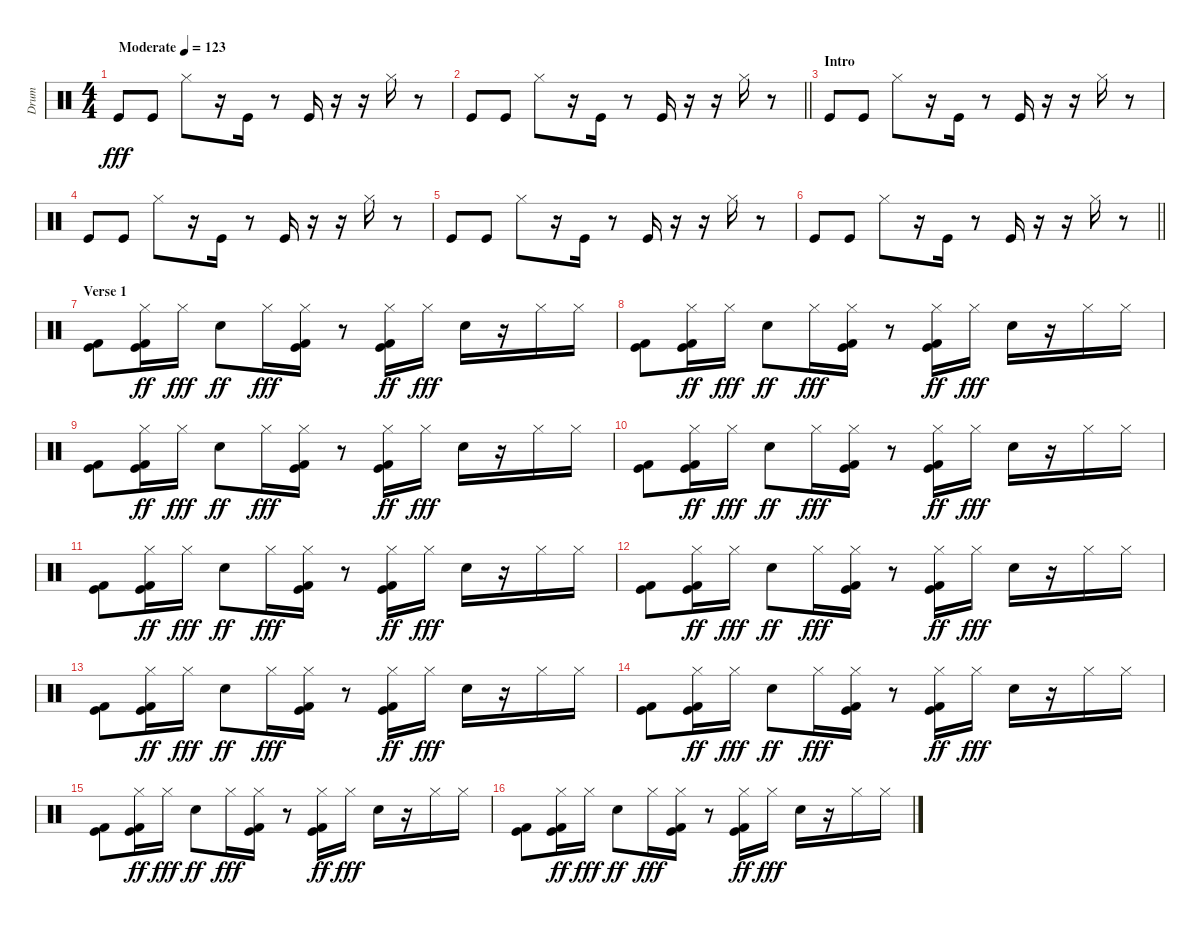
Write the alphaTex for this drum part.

\track ("Drum" "Drum") {instrument percussion}
\staff {score}
\articulation defaults
\ts (4 4)
\tempo (123 "Moderate")
\clef neutral
\ks c "Kick (hit)".8{dy fff} "Kick (hit)".8 "Hi-Hat (closed)".8
r.16 "Kick (hit)".16 r.8 "Kick (hit)".16 r.16 r.16 "Hi-Hat (closed)".16 r.8 |
\barLineRight lightlight "Kick (hit)".8 "Kick (hit)".8 "Hi-Hat (closed)".8
r.16 "Kick (hit)".16 r.8 "Kick (hit)".16 r.16 r.16 "Hi-Hat (closed)".16 r.8 |
\section ("" "Intro")
"Kick (hit)".8 "Kick (hit)".8 "Hi-Hat (closed)".8 r.16 "Kick (hit)".16 r.8 "Kick (hit)".16 r.16 r.16 "Hi-Hat (closed)".16 r.8 |
"Kick (hit)".8 "Kick (hit)".8 "Hi-Hat (closed)".8 r.16 "Kick (hit)".16 r.8 "Kick (hit)".16 r.16 r.16 "Hi-Hat (closed)".16 r.8 |
"Kick (hit)".8 "Kick (hit)".8 "Hi-Hat (closed)".8 r.16 "Kick (hit)".16 r.8 "Kick (hit)".16 r.16 r.16 "Hi-Hat (closed)".16 r.8 |
\barLineRight lightlight "Kick (hit)".8 "Kick (hit)".8 "Hi-Hat (closed)".8
r.16 "Kick (hit)".16 r.8 "Kick (hit)".16 r.16 r.16 "Hi-Hat (closed)".16 r.8 |
\section ("" "Verse 1")
("Kick (hit)" "Kick (hit) 2").8 ("Hi-Hat (closed)" "Kick (hit)" "Kick (hit) 2").16{dy ff} "Hi-Hat (closed)".16{dy fff} "Electric Snare (hit)".8{dy ff} "Hi-Hat (closed)".16{dy fff} ("Hi-Hat (closed)" "Kick (hit)" "Kick (hit) 2").16 r.8 ("Hi-Hat (closed)" "Kick (hit)" "Kick (hit) 2").16{dy ff} "Hi-Hat (closed)".16{dy fff} "Electric Snare (hit)".16 r.16 "Hi-Hat (closed)".16 "Hi-Hat (closed)".16 |
("Kick (hit)" "Kick (hit) 2").8 ("Hi-Hat (closed)" "Kick (hit)" "Kick (hit) 2").16{dy ff} "Hi-Hat (closed)".16{dy fff} "Electric Snare (hit)".8{dy ff} "Hi-Hat (closed)".16{dy fff} ("Hi-Hat (closed)" "Kick (hit)" "Kick (hit) 2").16 r.8 ("Hi-Hat (closed)" "Kick (hit)" "Kick (hit) 2").16{dy ff} "Hi-Hat (closed)".16{dy fff} "Electric Snare (hit)".16 r.16 "Hi-Hat (closed)".16 "Hi-Hat (closed)".16 |
("Kick (hit)" "Kick (hit) 2").8 ("Hi-Hat (closed)" "Kick (hit)" "Kick (hit) 2").16{dy ff} "Hi-Hat (closed)".16{dy fff} "Electric Snare (hit)".8{dy ff} "Hi-Hat (closed)".16{dy fff} ("Hi-Hat (closed)" "Kick (hit)" "Kick (hit) 2").16 r.8 ("Hi-Hat (closed)" "Kick (hit)" "Kick (hit) 2").16{dy ff} "Hi-Hat (closed)".16{dy fff} "Electric Snare (hit)".16 r.16 "Hi-Hat (closed)".16 "Hi-Hat (closed)".16 |
("Kick (hit)" "Kick (hit) 2").8 ("Hi-Hat (closed)" "Kick (hit)" "Kick (hit) 2").16{dy ff} "Hi-Hat (closed)".16{dy fff} "Electric Snare (hit)".8{dy ff} "Hi-Hat (closed)".16{dy fff} ("Hi-Hat (closed)" "Kick (hit)" "Kick (hit) 2").16 r.8 ("Hi-Hat (closed)" "Kick (hit)" "Kick (hit) 2").16{dy ff} "Hi-Hat (closed)".16{dy fff} "Electric Snare (hit)".16 r.16 "Hi-Hat (closed)".16 "Hi-Hat (closed)".16 |
("Kick (hit)" "Kick (hit) 2").8 ("Hi-Hat (closed)" "Kick (hit)" "Kick (hit) 2").16{dy ff} "Hi-Hat (closed)".16{dy fff} "Electric Snare (hit)".8{dy ff} "Hi-Hat (closed)".16{dy fff} ("Hi-Hat (closed)" "Kick (hit)" "Kick (hit) 2").16 r.8 ("Hi-Hat (closed)" "Kick (hit)" "Kick (hit) 2").16{dy ff} "Hi-Hat (closed)".16{dy fff} "Electric Snare (hit)".16 r.16 "Hi-Hat (closed)".16 "Hi-Hat (closed)".16 |
("Kick (hit)" "Kick (hit) 2").8 ("Hi-Hat (closed)" "Kick (hit)" "Kick (hit) 2").16{dy ff} "Hi-Hat (closed)".16{dy fff} "Electric Snare (hit)".8{dy ff} "Hi-Hat (closed)".16{dy fff} ("Hi-Hat (closed)" "Kick (hit)" "Kick (hit) 2").16 r.8 ("Hi-Hat (closed)" "Kick (hit)" "Kick (hit) 2").16{dy ff} "Hi-Hat (closed)".16{dy fff} "Electric Snare (hit)".16 r.16 "Hi-Hat (closed)".16 "Hi-Hat (closed)".16 |
("Kick (hit)" "Kick (hit) 2").8 ("Hi-Hat (closed)" "Kick (hit)" "Kick (hit) 2").16{dy ff} "Hi-Hat (closed)".16{dy fff} "Electric Snare (hit)".8{dy ff} "Hi-Hat (closed)".16{dy fff} ("Hi-Hat (closed)" "Kick (hit)" "Kick (hit) 2").16 r.8 ("Hi-Hat (closed)" "Kick (hit)" "Kick (hit) 2").16{dy ff} "Hi-Hat (closed)".16{dy fff} "Electric Snare (hit)".16 r.16 "Hi-Hat (closed)".16 "Hi-Hat (closed)".16 |
("Kick (hit)" "Kick (hit) 2").8 ("Hi-Hat (closed)" "Kick (hit)" "Kick (hit) 2").16{dy ff} "Hi-Hat (closed)".16{dy fff} "Electric Snare (hit)".8{dy ff} "Hi-Hat (closed)".16{dy fff} ("Hi-Hat (closed)" "Kick (hit)" "Kick (hit) 2").16 r.8 ("Hi-Hat (closed)" "Kick (hit)" "Kick (hit) 2").16{dy ff} "Hi-Hat (closed)".16{dy fff} "Electric Snare (hit)".16 r.16 "Hi-Hat (closed)".16 "Hi-Hat (closed)".16 |
("Kick (hit)" "Kick (hit) 2").8 ("Hi-Hat (closed)" "Kick (hit)" "Kick (hit) 2").16{dy ff} "Hi-Hat (closed)".16{dy fff} "Electric Snare (hit)".8{dy ff} "Hi-Hat (closed)".16{dy fff} ("Hi-Hat (closed)" "Kick (hit)" "Kick (hit) 2").16 r.8 ("Hi-Hat (closed)" "Kick (hit)" "Kick (hit) 2").16{dy ff} "Hi-Hat (closed)".16{dy fff} "Electric Snare (hit)".16 r.16 "Hi-Hat (closed)".16 "Hi-Hat (closed)".16 |
("Kick (hit)" "Kick (hit) 2").8 ("Hi-Hat (closed)" "Kick (hit)" "Kick (hit) 2").16{dy ff} "Hi-Hat (closed)".16{dy fff} "Electric Snare (hit)".8{dy ff} "Hi-Hat (closed)".16{dy fff} ("Hi-Hat (closed)" "Kick (hit)" "Kick (hit) 2").16 r.8 ("Hi-Hat (closed)" "Kick (hit)" "Kick (hit) 2").16{dy ff} "Hi-Hat (closed)".16{dy fff} "Electric Snare (hit)".16 r.16 "Hi-Hat (closed)".16 "Hi-Hat (closed)".16
